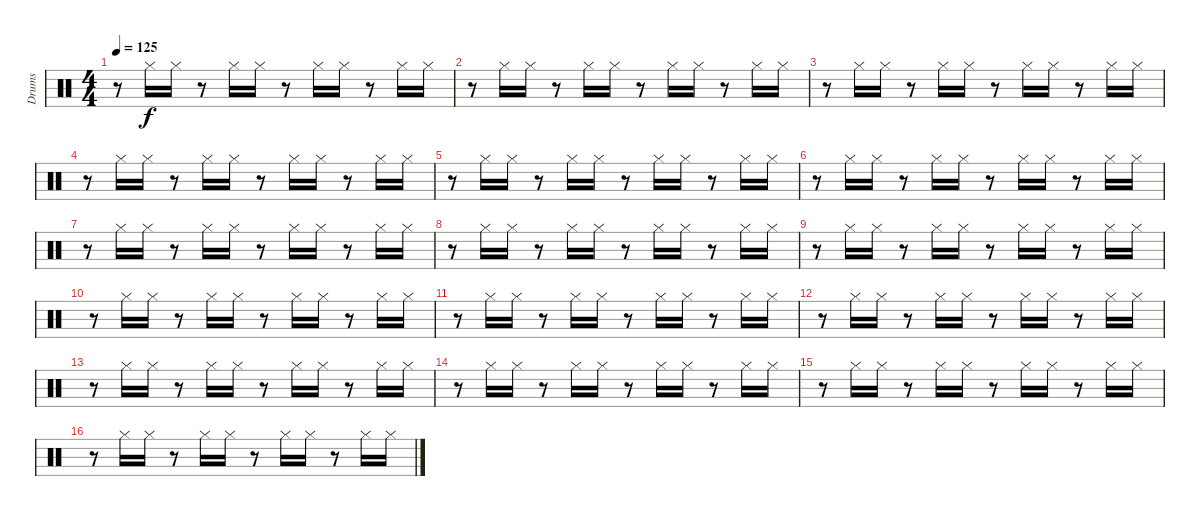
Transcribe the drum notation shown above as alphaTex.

\track ("Drums" "Drums") {instrument percussion}
\staff {score}
\articulation defaults
\ts (4 4)
\tempo 125
\clef neutral
\ks c
r.8{dy f} "Hi-Hat (closed)".16 "Hi-Hat (closed)".16 r.8 "Hi-Hat (closed)".16 "Hi-Hat (closed)".16 r.8 "Hi-Hat (closed)".16 "Hi-Hat (closed)".16 r.8 "Hi-Hat (closed)".16 "Hi-Hat (closed)".16 |
r.8 "Hi-Hat (closed)".16 "Hi-Hat (closed)".16 r.8 "Hi-Hat (closed)".16 "Hi-Hat (closed)".16 r.8 "Hi-Hat (closed)".16 "Hi-Hat (closed)".16 r.8 "Hi-Hat (closed)".16 "Hi-Hat (closed)".16 |
r.8 "Hi-Hat (closed)".16 "Hi-Hat (closed)".16 r.8 "Hi-Hat (closed)".16 "Hi-Hat (closed)".16 r.8 "Hi-Hat (closed)".16 "Hi-Hat (closed)".16 r.8 "Hi-Hat (closed)".16 "Hi-Hat (closed)".16 |
r.8 "Hi-Hat (closed)".16 "Hi-Hat (closed)".16 r.8 "Hi-Hat (closed)".16 "Hi-Hat (closed)".16 r.8 "Hi-Hat (closed)".16 "Hi-Hat (closed)".16 r.8 "Hi-Hat (closed)".16 "Hi-Hat (closed)".16 |
r.8 "Hi-Hat (closed)".16 "Hi-Hat (closed)".16 r.8 "Hi-Hat (closed)".16 "Hi-Hat (closed)".16 r.8 "Hi-Hat (closed)".16 "Hi-Hat (closed)".16 r.8 "Hi-Hat (closed)".16 "Hi-Hat (closed)".16 |
r.8 "Hi-Hat (closed)".16 "Hi-Hat (closed)".16 r.8 "Hi-Hat (closed)".16 "Hi-Hat (closed)".16 r.8 "Hi-Hat (closed)".16 "Hi-Hat (closed)".16 r.8 "Hi-Hat (closed)".16 "Hi-Hat (closed)".16 |
r.8 "Hi-Hat (closed)".16 "Hi-Hat (closed)".16 r.8 "Hi-Hat (closed)".16 "Hi-Hat (closed)".16 r.8 "Hi-Hat (closed)".16 "Hi-Hat (closed)".16 r.8 "Hi-Hat (closed)".16 "Hi-Hat (closed)".16 |
r.8 "Hi-Hat (closed)".16 "Hi-Hat (closed)".16 r.8 "Hi-Hat (closed)".16 "Hi-Hat (closed)".16 r.8 "Hi-Hat (closed)".16 "Hi-Hat (closed)".16 r.8 "Hi-Hat (closed)".16 "Hi-Hat (closed)".16 |
r.8 "Hi-Hat (closed)".16 "Hi-Hat (closed)".16 r.8 "Hi-Hat (closed)".16 "Hi-Hat (closed)".16 r.8 "Hi-Hat (closed)".16 "Hi-Hat (closed)".16 r.8 "Hi-Hat (closed)".16 "Hi-Hat (closed)".16 |
r.8 "Hi-Hat (closed)".16 "Hi-Hat (closed)".16 r.8 "Hi-Hat (closed)".16 "Hi-Hat (closed)".16 r.8 "Hi-Hat (closed)".16 "Hi-Hat (closed)".16 r.8 "Hi-Hat (closed)".16 "Hi-Hat (closed)".16 |
r.8 "Hi-Hat (closed)".16 "Hi-Hat (closed)".16 r.8 "Hi-Hat (closed)".16 "Hi-Hat (closed)".16 r.8 "Hi-Hat (closed)".16 "Hi-Hat (closed)".16 r.8 "Hi-Hat (closed)".16 "Hi-Hat (closed)".16 |
r.8 "Hi-Hat (closed)".16 "Hi-Hat (closed)".16 r.8 "Hi-Hat (closed)".16 "Hi-Hat (closed)".16 r.8 "Hi-Hat (closed)".16 "Hi-Hat (closed)".16 r.8 "Hi-Hat (closed)".16 "Hi-Hat (closed)".16 |
r.8 "Hi-Hat (closed)".16 "Hi-Hat (closed)".16 r.8 "Hi-Hat (closed)".16 "Hi-Hat (closed)".16 r.8 "Hi-Hat (closed)".16 "Hi-Hat (closed)".16 r.8 "Hi-Hat (closed)".16 "Hi-Hat (closed)".16 |
r.8 "Hi-Hat (closed)".16 "Hi-Hat (closed)".16 r.8 "Hi-Hat (closed)".16 "Hi-Hat (closed)".16 r.8 "Hi-Hat (closed)".16 "Hi-Hat (closed)".16 r.8 "Hi-Hat (closed)".16 "Hi-Hat (closed)".16 |
r.8 "Hi-Hat (closed)".16 "Hi-Hat (closed)".16 r.8 "Hi-Hat (closed)".16 "Hi-Hat (closed)".16 r.8 "Hi-Hat (closed)".16 "Hi-Hat (closed)".16 r.8 "Hi-Hat (closed)".16 "Hi-Hat (closed)".16 |
r.8 "Hi-Hat (closed)".16 "Hi-Hat (closed)".16 r.8 "Hi-Hat (closed)".16 "Hi-Hat (closed)".16 r.8 "Hi-Hat (closed)".16 "Hi-Hat (closed)".16 r.8 "Hi-Hat (closed)".16 "Hi-Hat (closed)".16
